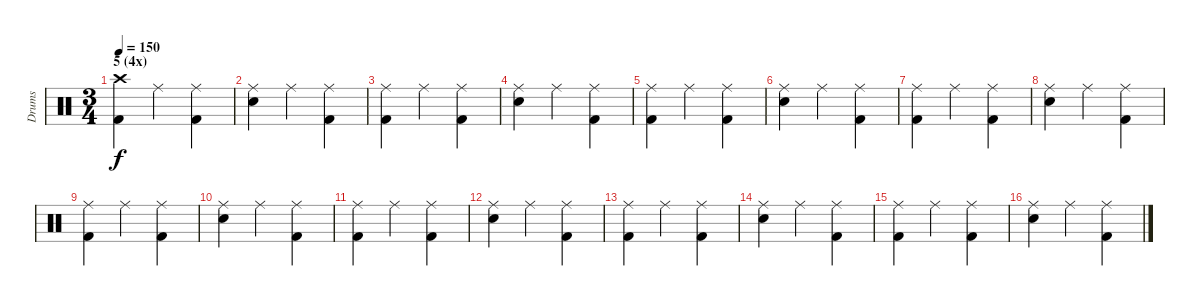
\track ("Drums" "Drums") {instrument percussion}
\staff {score}
\articulation defaults
\ts (3 4)
\section ("" "5 (4x)")
\tempo 150
\clef neutral
\ks c
("Crash high (hit)" "Kick (hit) 2").4{dy f} "Ride (middle)".4 ("Ride (middle)" "Kick (hit) 2").4 |
("Ride (middle)" "Snare (hit) 2").4 "Ride (middle)".4 ("Ride (middle)" "Kick (hit) 2").4 |
("Ride (middle)" "Kick (hit) 2").4 "Ride (middle)".4 ("Ride (middle)" "Kick (hit) 2").4 |
("Ride (middle)" "Snare (hit) 2").4 "Ride (middle)".4 ("Ride (middle)" "Kick (hit) 2").4 |
("Ride (middle)" "Kick (hit) 2").4 "Ride (middle)".4 ("Ride (middle)" "Kick (hit) 2").4 |
("Ride (middle)" "Snare (hit) 2").4 "Ride (middle)".4 ("Ride (middle)" "Kick (hit) 2").4 |
("Ride (middle)" "Kick (hit) 2").4 "Ride (middle)".4 ("Ride (middle)" "Kick (hit) 2").4 |
("Ride (middle)" "Snare (hit) 2").4 "Ride (middle)".4 ("Ride (middle)" "Kick (hit) 2").4 |
("Ride (middle)" "Kick (hit) 2").4 "Ride (middle)".4 ("Ride (middle)" "Kick (hit) 2").4 |
("Ride (middle)" "Snare (hit) 2").4 "Ride (middle)".4 ("Ride (middle)" "Kick (hit) 2").4 |
("Ride (middle)" "Kick (hit) 2").4 "Ride (middle)".4 ("Ride (middle)" "Kick (hit) 2").4 |
("Ride (middle)" "Snare (hit) 2").4 "Ride (middle)".4 ("Ride (middle)" "Kick (hit) 2").4 |
("Ride (middle)" "Kick (hit) 2").4 "Ride (middle)".4 ("Ride (middle)" "Kick (hit) 2").4 |
("Ride (middle)" "Snare (hit) 2").4 "Ride (middle)".4 ("Ride (middle)" "Kick (hit) 2").4 |
("Ride (middle)" "Kick (hit) 2").4 "Ride (middle)".4 ("Ride (middle)" "Kick (hit) 2").4 |
("Ride (middle)" "Snare (hit) 2").4 "Ride (middle)".4 ("Ride (middle)" "Kick (hit) 2").4
